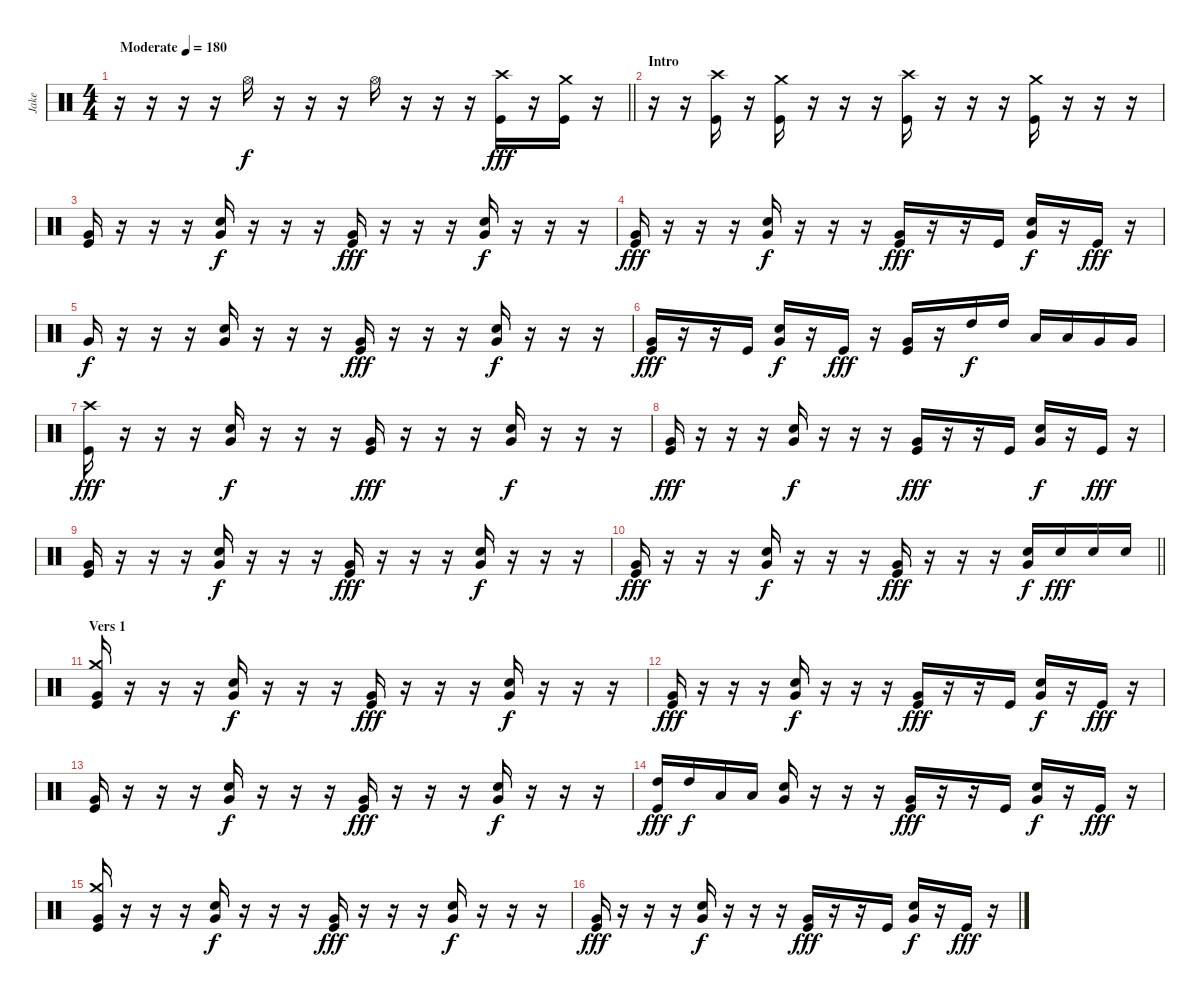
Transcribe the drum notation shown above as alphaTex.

\track ("Jake" "Jake") {instrument percussion}
\staff {score}
\articulation defaults
\ts (4 4)
\tempo (180 "Moderate")
\clef neutral
\barLineRight lightlight
\ks c
r.16{dy f} r.16 r.16 r.16 "Hi-Hat (open)".16 r.16 r.16 r.16 "Hi-Hat (open)".16 r.16 r.16 r.16 ("Crash high (hit)" "Kick (hit)").16{dy fff} r.16 ("Crash medium (hit)" "Kick (hit)").16 r.16 |
\section ("" "Intro")
r.16 r.16 ("Crash high (hit)" "Kick (hit)").16 r.16 ("Crash medium (hit)" "Kick (hit)").16 r.16 r.16 r.16 ("Crash high (hit)" "Kick (hit)").16 r.16 r.16 r.16 ("Crash medium (hit)" "Kick (hit)").16 r.16 r.16 r.16 |
("Very Low Tom (hit)" "Kick (hit)").16 r.16 r.16 r.16 ("Very Low Tom (hit)" "Electric Snare (hit)").16{dy f} r.16 r.16 r.16 ("Very Low Tom (hit)" "Kick (hit)").16{dy fff} r.16 r.16 r.16 ("Very Low Tom (hit)" "Electric Snare (hit)").16{dy f} r.16 r.16 r.16 |
("Very Low Tom (hit)" "Kick (hit)").16{dy fff} r.16 r.16 r.16 ("Very Low Tom (hit)" "Electric Snare (hit)").16{dy f} r.16 r.16 r.16 ("Very Low Tom (hit)" "Kick (hit)").16{dy fff} r.16 r.16 "Kick (hit)".16 ("Very Low Tom (hit)" "Electric Snare (hit)").16{dy f} r.16 "Kick (hit)".16{dy fff} r.16 |
"Very Low Tom (hit)".16{dy f} r.16 r.16 r.16 ("Very Low Tom (hit)" "Electric Snare (hit)").16 r.16 r.16 r.16 ("Very Low Tom (hit)" "Kick (hit)").16{dy fff} r.16 r.16 r.16 ("Very Low Tom (hit)" "Electric Snare (hit)").16{dy f} r.16 r.16 r.16 |
("Very Low Tom (hit)" "Kick (hit)").16{dy fff} r.16 r.16 "Kick (hit)".16 ("Very Low Tom (hit)" "Electric Snare (hit)").16{dy f} r.16 "Kick (hit)".16{dy fff} r.16 ("Very Low Tom (hit)" "Kick (hit)").16 r.16 "High Tom (hit)".16{dy f} "High Tom (hit)".16 "Low Tom (hit)".16 "Low Tom (hit)".16 "Very Low Tom (hit)".16 "Very Low Tom (hit)".16 |
("Crash high (hit)" "Kick (hit)").16{dy fff} r.16 r.16 r.16 ("Very Low Tom (hit)" "Electric Snare (hit)").16{dy f} r.16 r.16 r.16 ("Very Low Tom (hit)" "Kick (hit)").16{dy fff} r.16 r.16 r.16 ("Very Low Tom (hit)" "Electric Snare (hit)").16{dy f} r.16 r.16 r.16 |
("Very Low Tom (hit)" "Kick (hit)").16{dy fff} r.16 r.16 r.16 ("Very Low Tom (hit)" "Electric Snare (hit)").16{dy f} r.16 r.16 r.16 ("Very Low Tom (hit)" "Kick (hit)").16{dy fff} r.16 r.16 "Kick (hit)".16 ("Very Low Tom (hit)" "Electric Snare (hit)").16{dy f} r.16 "Kick (hit)".16{dy fff} r.16 |
("Very Low Tom (hit)" "Kick (hit)").16 r.16 r.16 r.16 ("Very Low Tom (hit)" "Electric Snare (hit)").16{dy f} r.16 r.16 r.16 ("Very Low Tom (hit)" "Kick (hit)").16{dy fff} r.16 r.16 r.16 ("Very Low Tom (hit)" "Electric Snare (hit)").16{dy f} r.16 r.16 r.16 |
\barLineRight lightlight
("Very Low Tom (hit)" "Kick (hit)").16{dy fff} r.16 r.16 r.16 ("Very Low Tom (hit)" "Electric Snare (hit)").16{dy f} r.16 r.16 r.16 ("Very Low Tom (hit)" "Kick (hit)").16{dy fff} r.16 r.16 r.16 ("Very Low Tom (hit)" "Electric Snare (hit)").16{dy f} "Electric Snare (hit)".16{dy fff} "Electric Snare (hit)".16 "Electric Snare (hit)".16 |
\section ("" "Vers 1")
("Crash medium (hit)" "Very Low Tom (hit)" "Kick (hit)").16 r.16 r.16 r.16 ("Very Low Tom (hit)" "Electric Snare (hit)").16{dy f} r.16 r.16 r.16 ("Very Low Tom (hit)" "Kick (hit)").16{dy fff} r.16 r.16 r.16 ("Very Low Tom (hit)" "Electric Snare (hit)").16{dy f} r.16 r.16 r.16 |
("Very Low Tom (hit)" "Kick (hit)").16{dy fff} r.16 r.16 r.16 ("Very Low Tom (hit)" "Electric Snare (hit)").16{dy f} r.16 r.16 r.16 ("Very Low Tom (hit)" "Kick (hit)").16{dy fff} r.16 r.16 "Kick (hit)".16 ("Very Low Tom (hit)" "Electric Snare (hit)").16{dy f} r.16 "Kick (hit)".16{dy fff} r.16 |
("Very Low Tom (hit)" "Kick (hit)").16 r.16 r.16 r.16 ("Very Low Tom (hit)" "Electric Snare (hit)").16{dy f} r.16 r.16 r.16 ("Very Low Tom (hit)" "Kick (hit)").16{dy fff} r.16 r.16 r.16 ("Very Low Tom (hit)" "Electric Snare (hit)").16{dy f} r.16 r.16 r.16 |
("High Tom (hit)" "Kick (hit)").16{dy fff} "High Tom (hit)".16{dy f} "Low Tom (hit)".16 "Low Tom (hit)".16 ("Very Low Tom (hit)" "Electric Snare (hit)").16 r.16 r.16 r.16 ("Very Low Tom (hit)" "Kick (hit)").16{dy fff} r.16 r.16 "Kick (hit)".16 ("Very Low Tom (hit)" "Electric Snare (hit)").16{dy f} r.16 "Kick (hit)".16{dy fff} r.16 |
("Crash medium (hit)" "Very Low Tom (hit)" "Kick (hit)").16 r.16 r.16 r.16 ("Very Low Tom (hit)" "Electric Snare (hit)").16{dy f} r.16 r.16 r.16 ("Very Low Tom (hit)" "Kick (hit)").16{dy fff} r.16 r.16 r.16 ("Very Low Tom (hit)" "Electric Snare (hit)").16{dy f} r.16 r.16 r.16 |
("Very Low Tom (hit)" "Kick (hit)").16{dy fff} r.16 r.16 r.16 ("Very Low Tom (hit)" "Electric Snare (hit)").16{dy f} r.16 r.16 r.16 ("Very Low Tom (hit)" "Kick (hit)").16{dy fff} r.16 r.16 "Kick (hit)".16 ("Very Low Tom (hit)" "Electric Snare (hit)").16{dy f} r.16 "Kick (hit)".16{dy fff} r.16
